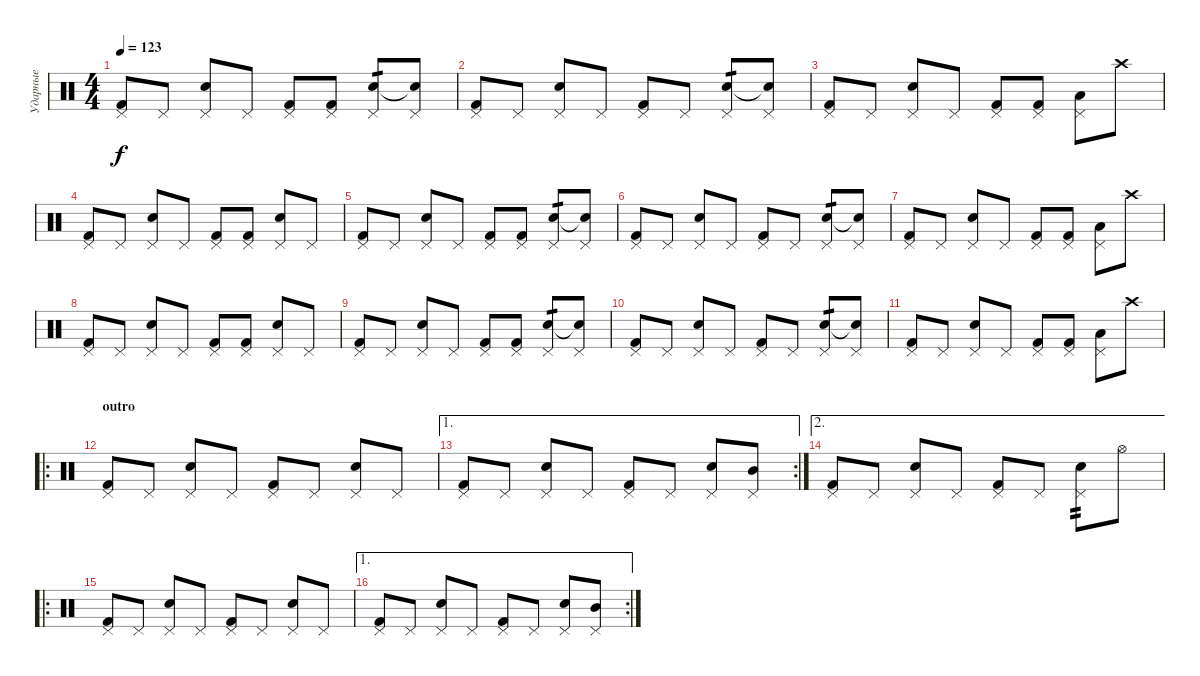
\track ("Ударные" "Ударные") {instrument percussion}
\staff {score}
\articulation defaults
\ts (4 4)
\tempo 123
\clef neutral
\ks c
("Pedal Hi-Hat (hit)" "Kick (hit) 2").8{dy f} "Pedal Hi-Hat (hit)".8 ("Pedal Hi-Hat (hit)" "Snare (hit) 2").8 "Pedal Hi-Hat (hit)".8 ("Pedal Hi-Hat (hit)" "Kick (hit) 2").8 ("Pedal Hi-Hat (hit)" "Kick (hit) 2").8 ("Pedal Hi-Hat (hit)" "Snare (hit) 2").8{tp 1} ("Pedal Hi-Hat (hit)" "Snare (hit)"{t}).8 |
("Pedal Hi-Hat (hit)" "Kick (hit) 2").8 "Pedal Hi-Hat (hit)".8 ("Pedal Hi-Hat (hit)" "Snare (hit) 2").8 "Pedal Hi-Hat (hit)".8 ("Pedal Hi-Hat (hit)" "Kick (hit) 2").8 "Pedal Hi-Hat (hit)".8 ("Pedal Hi-Hat (hit)" "Snare (hit) 2").8{tp 1} ("Pedal Hi-Hat (hit)" "Snare (hit)"{t}).8 |
("Pedal Hi-Hat (hit)" "Kick (hit) 2").8 "Pedal Hi-Hat (hit)".8 ("Pedal Hi-Hat (hit)" "Snare (hit) 2").8 "Pedal Hi-Hat (hit)".8 ("Pedal Hi-Hat (hit)" "Kick (hit) 2").8 ("Pedal Hi-Hat (hit)" "Kick (hit) 2").8 ("Pedal Hi-Hat (hit)" "Low Tom (hit)").8 "Crash high (hit)".8 |
("Pedal Hi-Hat (hit)" "Kick (hit) 2").8 "Pedal Hi-Hat (hit)".8 ("Pedal Hi-Hat (hit)" "Snare (hit) 2").8 "Pedal Hi-Hat (hit)".8 ("Pedal Hi-Hat (hit)" "Kick (hit) 2").8 ("Pedal Hi-Hat (hit)" "Kick (hit) 2").8 ("Pedal Hi-Hat (hit)" "Snare (hit) 2").8 "Pedal Hi-Hat (hit)".8 |
("Pedal Hi-Hat (hit)" "Kick (hit) 2").8 "Pedal Hi-Hat (hit)".8 ("Pedal Hi-Hat (hit)" "Snare (hit) 2").8 "Pedal Hi-Hat (hit)".8 ("Pedal Hi-Hat (hit)" "Kick (hit) 2").8 ("Pedal Hi-Hat (hit)" "Kick (hit) 2").8 ("Pedal Hi-Hat (hit)" "Snare (hit) 2").8{tp 1} ("Pedal Hi-Hat (hit)" "Snare (hit)"{t}).8 |
("Pedal Hi-Hat (hit)" "Kick (hit) 2").8 "Pedal Hi-Hat (hit)".8 ("Pedal Hi-Hat (hit)" "Snare (hit) 2").8 "Pedal Hi-Hat (hit)".8 ("Pedal Hi-Hat (hit)" "Kick (hit) 2").8 "Pedal Hi-Hat (hit)".8 ("Pedal Hi-Hat (hit)" "Snare (hit) 2").8{tp 1} ("Pedal Hi-Hat (hit)" "Snare (hit)"{t}).8 |
("Pedal Hi-Hat (hit)" "Kick (hit) 2").8 "Pedal Hi-Hat (hit)".8 ("Pedal Hi-Hat (hit)" "Snare (hit) 2").8 "Pedal Hi-Hat (hit)".8 ("Pedal Hi-Hat (hit)" "Kick (hit) 2").8 ("Pedal Hi-Hat (hit)" "Kick (hit) 2").8 ("Pedal Hi-Hat (hit)" "Low Tom (hit)").8 "Crash high (hit)".8 |
("Pedal Hi-Hat (hit)" "Kick (hit) 2").8 "Pedal Hi-Hat (hit)".8 ("Pedal Hi-Hat (hit)" "Snare (hit) 2").8 "Pedal Hi-Hat (hit)".8 ("Pedal Hi-Hat (hit)" "Kick (hit) 2").8 ("Pedal Hi-Hat (hit)" "Kick (hit) 2").8 ("Pedal Hi-Hat (hit)" "Snare (hit) 2").8 "Pedal Hi-Hat (hit)".8 |
("Pedal Hi-Hat (hit)" "Kick (hit) 2").8 "Pedal Hi-Hat (hit)".8 ("Pedal Hi-Hat (hit)" "Snare (hit) 2").8 "Pedal Hi-Hat (hit)".8 ("Pedal Hi-Hat (hit)" "Kick (hit) 2").8 ("Pedal Hi-Hat (hit)" "Kick (hit) 2").8 ("Pedal Hi-Hat (hit)" "Snare (hit) 2").8{tp 1} ("Pedal Hi-Hat (hit)" "Snare (hit)"{t}).8 |
("Pedal Hi-Hat (hit)" "Kick (hit) 2").8 "Pedal Hi-Hat (hit)".8 ("Pedal Hi-Hat (hit)" "Snare (hit) 2").8 "Pedal Hi-Hat (hit)".8 ("Pedal Hi-Hat (hit)" "Kick (hit) 2").8 "Pedal Hi-Hat (hit)".8 ("Pedal Hi-Hat (hit)" "Snare (hit) 2").8{tp 1} ("Pedal Hi-Hat (hit)" "Snare (hit)"{t}).8 |
("Pedal Hi-Hat (hit)" "Kick (hit) 2").8 "Pedal Hi-Hat (hit)".8 ("Pedal Hi-Hat (hit)" "Snare (hit) 2").8 "Pedal Hi-Hat (hit)".8 ("Pedal Hi-Hat (hit)" "Kick (hit) 2").8 ("Pedal Hi-Hat (hit)" "Kick (hit) 2").8 ("Pedal Hi-Hat (hit)" "Low Tom (hit)").8 "Crash high (hit)".8 |
\ro
\section ("" "outro")
("Pedal Hi-Hat (hit)" "Kick (hit) 2").8 "Pedal Hi-Hat (hit)".8 ("Pedal Hi-Hat (hit)" "Snare (hit) 2").8 "Pedal Hi-Hat (hit)".8 ("Pedal Hi-Hat (hit)" "Kick (hit) 2").8 "Pedal Hi-Hat (hit)".8 ("Pedal Hi-Hat (hit)" "Snare (hit) 2").8 "Pedal Hi-Hat (hit)".8 |
\ae 1
\rc 2
("Pedal Hi-Hat (hit)" "Kick (hit) 2").8 "Pedal Hi-Hat (hit)".8 ("Pedal Hi-Hat (hit)" "Snare (hit) 2").8 "Pedal Hi-Hat (hit)".8 ("Pedal Hi-Hat (hit)" "Kick (hit) 2").8 "Pedal Hi-Hat (hit)".8 ("Pedal Hi-Hat (hit)" "Snare (hit) 2").8 ("Pedal Hi-Hat (hit)" "Mid Tom (hit)").8 |
\ae 2
("Pedal Hi-Hat (hit)" "Kick (hit) 2").8 "Pedal Hi-Hat (hit)".8 ("Pedal Hi-Hat (hit)" "Snare (hit) 2").8 "Pedal Hi-Hat (hit)".8 ("Pedal Hi-Hat (hit)" "Kick (hit) 2").8 "Pedal Hi-Hat (hit)".8 ("Pedal Hi-Hat (hit)" "Snare (hit) 2").8{tp 2} "Hi-Hat (open)".8 |
\ro
("Pedal Hi-Hat (hit)" "Kick (hit) 2").8 "Pedal Hi-Hat (hit)".8 ("Pedal Hi-Hat (hit)" "Snare (hit) 2").8 "Pedal Hi-Hat (hit)".8 ("Pedal Hi-Hat (hit)" "Kick (hit) 2").8 "Pedal Hi-Hat (hit)".8 ("Pedal Hi-Hat (hit)" "Snare (hit) 2").8 "Pedal Hi-Hat (hit)".8 |
\ae 1
\rc 2
("Pedal Hi-Hat (hit)" "Kick (hit) 2").8 "Pedal Hi-Hat (hit)".8 ("Pedal Hi-Hat (hit)" "Snare (hit) 2").8 "Pedal Hi-Hat (hit)".8 ("Pedal Hi-Hat (hit)" "Kick (hit) 2").8 "Pedal Hi-Hat (hit)".8 ("Pedal Hi-Hat (hit)" "Snare (hit) 2").8 ("Pedal Hi-Hat (hit)" "Mid Tom (hit)").8
